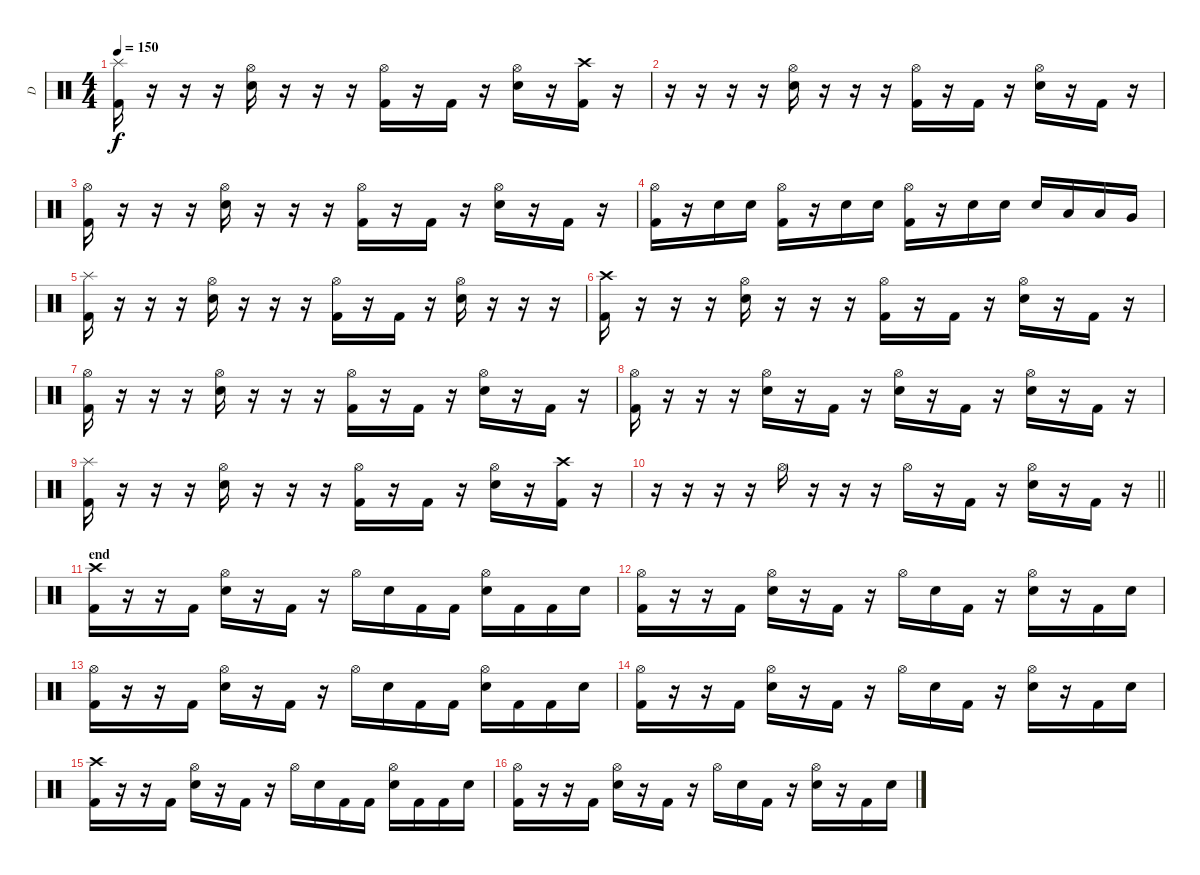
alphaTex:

\track ("D" "D") {instrument percussion}
\staff {score}
\articulation defaults
\ts (4 4)
\tempo 150
\clef neutral
\ks c
("Splash (hit)" "Kick (hit) 2").16{dy f} r.16 r.16 r.16 ("Hi-Hat (open)" "Electric Snare (hit)").16 r.16 r.16 r.16 ("Hi-Hat (open)" "Kick (hit) 2").16 r.16 "Kick (hit) 2".16 r.16 ("Hi-Hat (open)" "Electric Snare (hit)").16 r.16 ("Crash high (hit)" "Kick (hit) 2").16 r.16 |
r.16 r.16 r.16 r.16 ("Hi-Hat (open)" "Electric Snare (hit)").16 r.16 r.16 r.16 ("Hi-Hat (open)" "Kick (hit) 2").16 r.16 "Kick (hit) 2".16 r.16 ("Hi-Hat (open)" "Electric Snare (hit)").16 r.16 "Kick (hit) 2".16 r.16 |
("Hi-Hat (open)" "Kick (hit) 2").16 r.16 r.16 r.16 ("Hi-Hat (open)" "Electric Snare (hit)").16 r.16 r.16 r.16 ("Hi-Hat (open)" "Kick (hit) 2").16 r.16 "Kick (hit) 2".16 r.16 ("Hi-Hat (open)" "Electric Snare (hit)").16 r.16 "Kick (hit) 2".16 r.16 |
("Hi-Hat (open)" "Kick (hit) 2").16 r.16 "Electric Snare (hit)".16 "Electric Snare (hit)".16 ("Hi-Hat (open)" "Kick (hit) 2").16 r.16 "Electric Snare (hit)".16 "Electric Snare (hit)".16 ("Hi-Hat (open)" "Kick (hit) 2").16 r.16 "Electric Snare (hit)".16 "Electric Snare (hit)".16 "Electric Snare (hit)".16 "Low Tom (hit)".16 "Low Tom (hit)".16 "Very Low Tom (hit)".16 |
("Splash (hit)" "Kick (hit) 2").16 r.16 r.16 r.16 ("Hi-Hat (open)" "Electric Snare (hit)").16 r.16 r.16 r.16 ("Hi-Hat (open)" "Kick (hit) 2").16 r.16 "Kick (hit) 2".16 r.16 ("Hi-Hat (open)" "Electric Snare (hit)").16 r.16 r.16 r.16 |
("Crash high (hit)" "Kick (hit) 2").16 r.16 r.16 r.16 ("Hi-Hat (open)" "Electric Snare (hit)").16 r.16 r.16 r.16 ("Hi-Hat (open)" "Kick (hit) 2").16 r.16 "Kick (hit) 2".16 r.16 ("Hi-Hat (open)" "Electric Snare (hit)").16 r.16 "Kick (hit) 2".16 r.16 |
("Hi-Hat (open)" "Kick (hit) 2").16 r.16 r.16 r.16 ("Hi-Hat (open)" "Electric Snare (hit)").16 r.16 r.16 r.16 ("Hi-Hat (open)" "Kick (hit) 2").16 r.16 "Kick (hit) 2".16 r.16 ("Hi-Hat (open)" "Electric Snare (hit)").16 r.16 "Kick (hit) 2".16 r.16 |
("Hi-Hat (open)" "Kick (hit) 2").16 r.16 r.16 r.16 ("Hi-Hat (open)" "Electric Snare (hit)").16 r.16 "Kick (hit) 2".16 r.16 ("Hi-Hat (open)" "Electric Snare (hit)").16 r.16 "Kick (hit) 2".16 r.16 ("Hi-Hat (open)" "Electric Snare (hit)").16 r.16 "Kick (hit) 2".16 r.16 |
("Splash (hit)" "Kick (hit) 2").16 r.16 r.16 r.16 ("Hi-Hat (open)" "Electric Snare (hit)").16 r.16 r.16 r.16 ("Hi-Hat (open)" "Kick (hit) 2").16 r.16 "Kick (hit) 2".16 r.16 ("Hi-Hat (open)" "Electric Snare (hit)").16 r.16 ("Crash high (hit)" "Kick (hit) 2").16 r.16 |
\barLineRight lightlight
r.16 r.16 r.16 r.16 "Hi-Hat (open)".16 r.16 r.16 r.16 "Hi-Hat (open)".16 r.16 "Kick (hit) 2".16 r.16 ("Hi-Hat (open)" "Electric Snare (hit)").16 r.16 "Kick (hit) 2".16 r.16 |
\section ("" "end")
("Crash high (hit)" "Kick (hit) 2").16 r.16 r.16 "Kick (hit) 2".16 ("Hi-Hat (open)" "Electric Snare (hit)").16 r.16 "Kick (hit) 2".16 r.16 "Hi-Hat (open)".16 "Electric Snare (hit)".16 "Kick (hit) 2".16 "Kick (hit) 2".16 ("Hi-Hat (open)" "Electric Snare (hit)").16 "Kick (hit) 2".16 "Kick (hit) 2".16 "Electric Snare (hit)".16 |
("Hi-Hat (open)" "Kick (hit) 2").16 r.16 r.16 "Kick (hit) 2".16 ("Hi-Hat (open)" "Electric Snare (hit)").16 r.16 "Kick (hit) 2".16 r.16 "Hi-Hat (open)".16 "Electric Snare (hit)".16 "Kick (hit) 2".16 r.16 ("Hi-Hat (open)" "Electric Snare (hit)").16 r.16 "Kick (hit) 2".16 "Electric Snare (hit)".16 |
("Hi-Hat (open)" "Kick (hit) 2").16 r.16 r.16 "Kick (hit) 2".16 ("Hi-Hat (open)" "Electric Snare (hit)").16 r.16 "Kick (hit) 2".16 r.16 "Hi-Hat (open)".16 "Electric Snare (hit)".16 "Kick (hit) 2".16 "Kick (hit) 2".16 ("Hi-Hat (open)" "Electric Snare (hit)").16 "Kick (hit) 2".16 "Kick (hit) 2".16 "Electric Snare (hit)".16 |
("Hi-Hat (open)" "Kick (hit) 2").16 r.16 r.16 "Kick (hit) 2".16 ("Hi-Hat (open)" "Electric Snare (hit)").16 r.16 "Kick (hit) 2".16 r.16 "Hi-Hat (open)".16 "Electric Snare (hit)".16 "Kick (hit) 2".16 r.16 ("Hi-Hat (open)" "Electric Snare (hit)").16 r.16 "Kick (hit) 2".16 "Electric Snare (hit)".16 |
("Crash high (hit)" "Kick (hit) 2").16 r.16 r.16 "Kick (hit) 2".16 ("Hi-Hat (open)" "Electric Snare (hit)").16 r.16 "Kick (hit) 2".16 r.16 "Hi-Hat (open)".16 "Electric Snare (hit)".16 "Kick (hit) 2".16 "Kick (hit) 2".16 ("Hi-Hat (open)" "Electric Snare (hit)").16 "Kick (hit) 2".16 "Kick (hit) 2".16 "Electric Snare (hit)".16 |
("Hi-Hat (open)" "Kick (hit) 2").16 r.16 r.16 "Kick (hit) 2".16 ("Hi-Hat (open)" "Electric Snare (hit)").16 r.16 "Kick (hit) 2".16 r.16 "Hi-Hat (open)".16 "Electric Snare (hit)".16 "Kick (hit) 2".16 r.16 ("Hi-Hat (open)" "Electric Snare (hit)").16 r.16 "Kick (hit) 2".16 "Electric Snare (hit)".16
